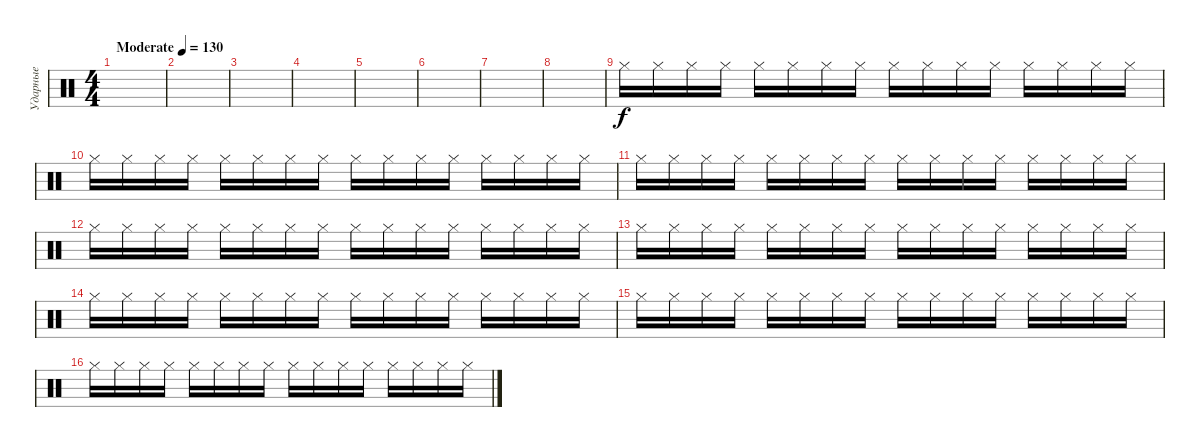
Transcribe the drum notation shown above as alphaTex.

\track ("Ударные" "Ударные") {instrument percussion}
\staff {score}
\articulation defaults
\ts (4 4)
\tempo (130 "Moderate")
\clef neutral
\ks c
|
|
|
|
|
|
|
|
"Hi-Hat (closed)".16 "Hi-Hat (closed)".16 "Hi-Hat (closed)".16 "Hi-Hat (closed)".16 "Hi-Hat (closed)".16 "Hi-Hat (closed)".16 "Hi-Hat (closed)".16 "Hi-Hat (closed)".16 "Hi-Hat (closed)".16 "Hi-Hat (closed)".16 "Hi-Hat (closed)".16 "Hi-Hat (closed)".16 "Hi-Hat (closed)".16 "Hi-Hat (closed)".16 "Hi-Hat (closed)".16 "Hi-Hat (closed)".16 |
"Hi-Hat (closed)".16 "Hi-Hat (closed)".16 "Hi-Hat (closed)".16 "Hi-Hat (closed)".16 "Hi-Hat (closed)".16 "Hi-Hat (closed)".16 "Hi-Hat (closed)".16 "Hi-Hat (closed)".16 "Hi-Hat (closed)".16 "Hi-Hat (closed)".16 "Hi-Hat (closed)".16 "Hi-Hat (closed)".16 "Hi-Hat (closed)".16 "Hi-Hat (closed)".16 "Hi-Hat (closed)".16 "Hi-Hat (closed)".16 |
"Hi-Hat (closed)".16 "Hi-Hat (closed)".16 "Hi-Hat (closed)".16 "Hi-Hat (closed)".16 "Hi-Hat (closed)".16 "Hi-Hat (closed)".16 "Hi-Hat (closed)".16 "Hi-Hat (closed)".16 "Hi-Hat (closed)".16 "Hi-Hat (closed)".16 "Hi-Hat (closed)".16 "Hi-Hat (closed)".16 "Hi-Hat (closed)".16 "Hi-Hat (closed)".16 "Hi-Hat (closed)".16 "Hi-Hat (closed)".16 |
"Hi-Hat (closed)".16 "Hi-Hat (closed)".16 "Hi-Hat (closed)".16 "Hi-Hat (closed)".16 "Hi-Hat (closed)".16 "Hi-Hat (closed)".16 "Hi-Hat (closed)".16 "Hi-Hat (closed)".16 "Hi-Hat (closed)".16 "Hi-Hat (closed)".16 "Hi-Hat (closed)".16 "Hi-Hat (closed)".16 "Hi-Hat (closed)".16 "Hi-Hat (closed)".16 "Hi-Hat (closed)".16 "Hi-Hat (closed)".16 |
"Hi-Hat (closed)".16 "Hi-Hat (closed)".16 "Hi-Hat (closed)".16 "Hi-Hat (closed)".16 "Hi-Hat (closed)".16 "Hi-Hat (closed)".16 "Hi-Hat (closed)".16 "Hi-Hat (closed)".16 "Hi-Hat (closed)".16 "Hi-Hat (closed)".16 "Hi-Hat (closed)".16 "Hi-Hat (closed)".16 "Hi-Hat (closed)".16 "Hi-Hat (closed)".16 "Hi-Hat (closed)".16 "Hi-Hat (closed)".16 |
"Hi-Hat (closed)".16 "Hi-Hat (closed)".16 "Hi-Hat (closed)".16 "Hi-Hat (closed)".16 "Hi-Hat (closed)".16 "Hi-Hat (closed)".16 "Hi-Hat (closed)".16 "Hi-Hat (closed)".16 "Hi-Hat (closed)".16 "Hi-Hat (closed)".16 "Hi-Hat (closed)".16 "Hi-Hat (closed)".16 "Hi-Hat (closed)".16 "Hi-Hat (closed)".16 "Hi-Hat (closed)".16 "Hi-Hat (closed)".16 |
"Hi-Hat (closed)".16 "Hi-Hat (closed)".16 "Hi-Hat (closed)".16 "Hi-Hat (closed)".16 "Hi-Hat (closed)".16 "Hi-Hat (closed)".16 "Hi-Hat (closed)".16 "Hi-Hat (closed)".16 "Hi-Hat (closed)".16 "Hi-Hat (closed)".16 "Hi-Hat (closed)".16 "Hi-Hat (closed)".16 "Hi-Hat (closed)".16 "Hi-Hat (closed)".16 "Hi-Hat (closed)".16 "Hi-Hat (closed)".16 |
"Hi-Hat (closed)".16 "Hi-Hat (closed)".16 "Hi-Hat (closed)".16 "Hi-Hat (closed)".16 "Hi-Hat (closed)".16 "Hi-Hat (closed)".16 "Hi-Hat (closed)".16 "Hi-Hat (closed)".16 "Hi-Hat (closed)".16 "Hi-Hat (closed)".16 "Hi-Hat (closed)".16 "Hi-Hat (closed)".16 "Hi-Hat (closed)".16 "Hi-Hat (closed)".16 "Hi-Hat (closed)".16 "Hi-Hat (closed)".16
